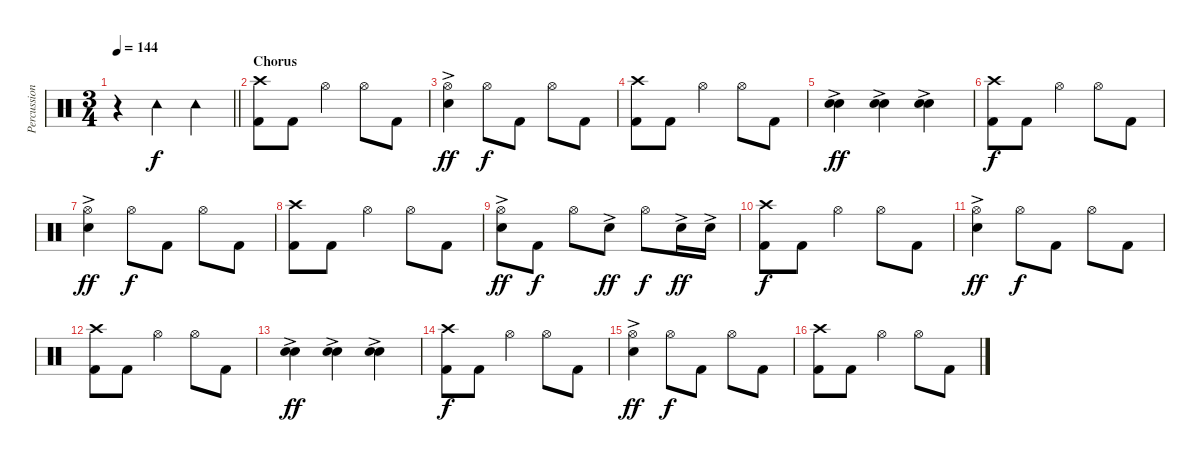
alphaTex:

\track ("Percussion" "Percussion") {instrument percussion}
\staff {score}
\articulation defaults
\ts (3 4)
\tempo 144
\clef neutral
\barLineRight lightlight
\ks c
r.4{dy f} "Tambourine (hit)".4 "Tambourine (hit)".4 |
\section ("" "Chorus")
("Crash high (hit)" "Kick (hit) 2").8 "Kick (hit) 2".8 "Hi-Hat (open)".4 "Hi-Hat (open)".8 "Kick (hit) 2".8 |
("Hi-Hat (open)" "Electric Snare (hit)"{ac}).4{dy ff} "Hi-Hat (open)".8{dy f} "Kick (hit) 2".8 "Hi-Hat (open)".8 "Kick (hit) 2".8 |
("Crash high (hit)" "Kick (hit) 2").8 "Kick (hit) 2".8 "Hi-Hat (open)".4 "Hi-Hat (open)".8 "Kick (hit) 2".8 |
("Electric Snare (hit)"{ac} "Electric Snare (hit)").4{bu 120 dy ff} ("Electric Snare (hit)"{ac} "Electric Snare (hit)").4{bu 120} ("Electric Snare (hit)"{ac} "Electric Snare (hit)").4{bu 120} |
("Crash high (hit)" "Kick (hit) 2").8{dy f} "Kick (hit) 2".8 "Hi-Hat (open)".4 "Hi-Hat (open)".8 "Kick (hit) 2".8 |
("Hi-Hat (open)" "Electric Snare (hit)"{ac}).4{dy ff} "Hi-Hat (open)".8{dy f} "Kick (hit) 2".8 "Hi-Hat (open)".8 "Kick (hit) 2".8 |
("Crash high (hit)" "Kick (hit) 2").8 "Kick (hit) 2".8 "Hi-Hat (open)".4 "Hi-Hat (open)".8 "Kick (hit) 2".8 |
("Hi-Hat (open)" "Electric Snare (hit)"{ac}).8{dy ff} "Kick (hit) 2".8{dy f} "Hi-Hat (open)".8 "Electric Snare (hit)"{ac}.8{dy ff} "Hi-Hat (open)".8{dy f} "Electric Snare (hit)"{ac}.16{dy ff} "Electric Snare (hit)"{ac}.16 |
("Crash high (hit)" "Kick (hit) 2").8{dy f} "Kick (hit) 2".8 "Hi-Hat (open)".4 "Hi-Hat (open)".8 "Kick (hit) 2".8 |
("Hi-Hat (open)" "Electric Snare (hit)"{ac}).4{dy ff} "Hi-Hat (open)".8{dy f} "Kick (hit) 2".8 "Hi-Hat (open)".8 "Kick (hit) 2".8 |
("Crash high (hit)" "Kick (hit) 2").8 "Kick (hit) 2".8 "Hi-Hat (open)".4 "Hi-Hat (open)".8 "Kick (hit) 2".8 |
("Electric Snare (hit)"{ac} "Electric Snare (hit)").4{bu 120 dy ff} ("Electric Snare (hit)"{ac} "Electric Snare (hit)").4{bu 120} ("Electric Snare (hit)"{ac} "Electric Snare (hit)").4{bu 120} |
("Crash high (hit)" "Kick (hit) 2").8{dy f} "Kick (hit) 2".8 "Hi-Hat (open)".4 "Hi-Hat (open)".8 "Kick (hit) 2".8 |
("Hi-Hat (open)" "Electric Snare (hit)"{ac}).4{dy ff} "Hi-Hat (open)".8{dy f} "Kick (hit) 2".8 "Hi-Hat (open)".8 "Kick (hit) 2".8 |
("Crash high (hit)" "Kick (hit) 2").8 "Kick (hit) 2".8 "Hi-Hat (open)".4 "Hi-Hat (open)".8 "Kick (hit) 2".8
